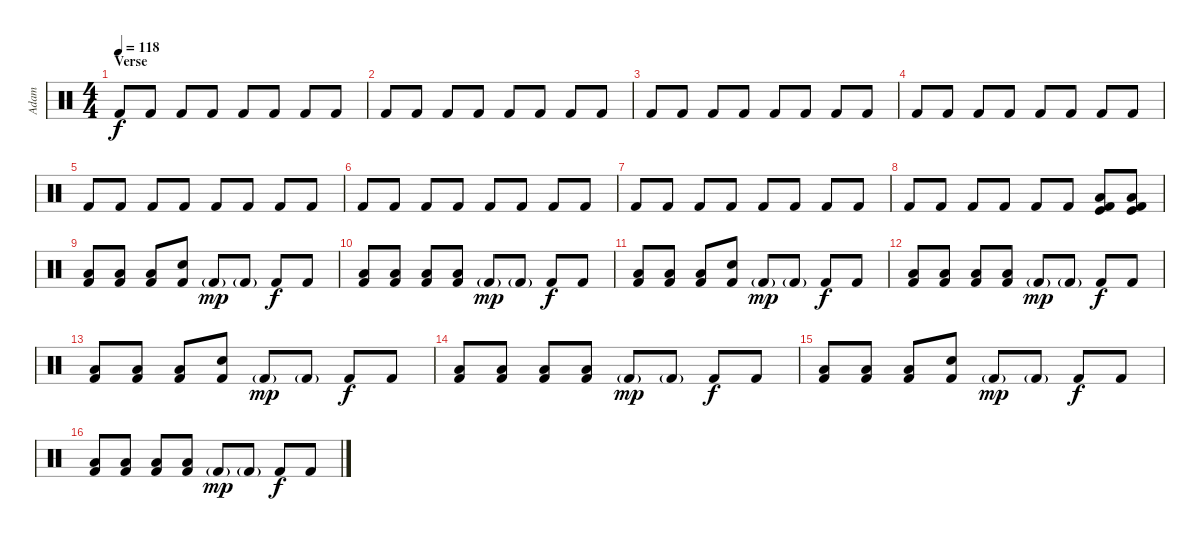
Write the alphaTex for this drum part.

\track ("Adam" "Adam") {instrument percussion}
\staff {score}
\articulation defaults
\ts (4 4)
\section ("" "Verse")
\tempo 118
\clef neutral
\ks c "Kick (hit) 2".8{dy f} "Kick (hit) 2".8 "Kick (hit) 2".8 "Kick (hit) 2".8 "Kick (hit) 2".8 "Kick (hit) 2".8 "Kick (hit) 2".8 "Kick (hit) 2".8
|
"Kick (hit) 2".8 "Kick (hit) 2".8 "Kick (hit) 2".8 "Kick (hit) 2".8 "Kick (hit) 2".8 "Kick (hit) 2".8 "Kick (hit) 2".8 "Kick (hit) 2".8 |
"Kick (hit) 2".8 "Kick (hit) 2".8 "Kick (hit) 2".8 "Kick (hit) 2".8 "Kick (hit) 2".8 "Kick (hit) 2".8 "Kick (hit) 2".8 "Kick (hit) 2".8 |
"Kick (hit) 2".8 "Kick (hit) 2".8 "Kick (hit) 2".8 "Kick (hit) 2".8 "Kick (hit) 2".8 "Kick (hit) 2".8 "Kick (hit) 2".8 "Kick (hit) 2".8 |
"Kick (hit) 2".8 "Kick (hit) 2".8 "Kick (hit) 2".8 "Kick (hit) 2".8 "Kick (hit) 2".8 "Kick (hit) 2".8 "Kick (hit) 2".8 "Kick (hit) 2".8 |
"Kick (hit) 2".8 "Kick (hit) 2".8 "Kick (hit) 2".8 "Kick (hit) 2".8 "Kick (hit) 2".8 "Kick (hit) 2".8 "Kick (hit) 2".8 "Kick (hit) 2".8 |
"Kick (hit) 2".8 "Kick (hit) 2".8 "Kick (hit) 2".8 "Kick (hit) 2".8 "Kick (hit) 2".8 "Kick (hit) 2".8 "Kick (hit) 2".8 "Kick (hit) 2".8 |
"Kick (hit) 2".8 "Kick (hit) 2".8 "Kick (hit) 2".8 "Kick (hit) 2".8 "Kick (hit) 2".8 "Kick (hit) 2".8 ("Kick (hit) 2" "Low Floor Tom (hit)" "Kick (hit)").8 ("Kick (hit) 2" "Low Floor Tom (hit)" "Kick (hit)").8 |
("Kick (hit) 2" "Low Floor Tom (hit)").8 ("Kick (hit) 2" "Low Floor Tom (hit)").8 ("Kick (hit) 2" "Low Floor Tom (hit)").8 ("Kick (hit) 2" "Electric Snare (hit)").8 "Kick (hit) 2"{g}.8{dy mp} "Kick (hit) 2"{g}.8 "Kick (hit) 2".8{dy f} "Kick (hit) 2".8 |
("Kick (hit) 2" "Low Floor Tom (hit)").8 ("Kick (hit) 2" "Low Floor Tom (hit)").8 ("Kick (hit) 2" "Low Floor Tom (hit)").8 ("Kick (hit) 2" "Low Floor Tom (hit)").8 "Kick (hit) 2"{g}.8{dy mp} "Kick (hit) 2"{g}.8 "Kick (hit) 2".8{dy f} "Kick (hit) 2".8 |
("Kick (hit) 2" "Low Floor Tom (hit)").8 ("Kick (hit) 2" "Low Floor Tom (hit)").8 ("Kick (hit) 2" "Low Floor Tom (hit)").8 ("Kick (hit) 2" "Electric Snare (hit)").8 "Kick (hit) 2"{g}.8{dy mp} "Kick (hit) 2"{g}.8 "Kick (hit) 2".8{dy f} "Kick (hit) 2".8 |
("Kick (hit) 2" "Low Floor Tom (hit)").8 ("Kick (hit) 2" "Low Floor Tom (hit)").8 ("Kick (hit) 2" "Low Floor Tom (hit)").8 ("Kick (hit) 2" "Low Floor Tom (hit)").8 "Kick (hit) 2"{g}.8{dy mp} "Kick (hit) 2"{g}.8 "Kick (hit) 2".8{dy f} "Kick (hit) 2".8 |
("Kick (hit) 2" "Low Floor Tom (hit)").8 ("Kick (hit) 2" "Low Floor Tom (hit)").8 ("Kick (hit) 2" "Low Floor Tom (hit)").8 ("Kick (hit) 2" "Electric Snare (hit)").8 "Kick (hit) 2"{g}.8{dy mp} "Kick (hit) 2"{g}.8 "Kick (hit) 2".8{dy f} "Kick (hit) 2".8 |
("Kick (hit) 2" "Low Floor Tom (hit)").8 ("Kick (hit) 2" "Low Floor Tom (hit)").8 ("Kick (hit) 2" "Low Floor Tom (hit)").8 ("Kick (hit) 2" "Low Floor Tom (hit)").8 "Kick (hit) 2"{g}.8{dy mp} "Kick (hit) 2"{g}.8 "Kick (hit) 2".8{dy f} "Kick (hit) 2".8 |
("Kick (hit) 2" "Low Floor Tom (hit)").8 ("Kick (hit) 2" "Low Floor Tom (hit)").8 ("Kick (hit) 2" "Low Floor Tom (hit)").8 ("Kick (hit) 2" "Electric Snare (hit)").8 "Kick (hit) 2"{g}.8{dy mp} "Kick (hit) 2"{g}.8 "Kick (hit) 2".8{dy f} "Kick (hit) 2".8 |
("Kick (hit) 2" "Low Floor Tom (hit)").8 ("Kick (hit) 2" "Low Floor Tom (hit)").8 ("Kick (hit) 2" "Low Floor Tom (hit)").8 ("Kick (hit) 2" "Low Floor Tom (hit)").8 "Kick (hit) 2"{g}.8{dy mp} "Kick (hit) 2"{g}.8 "Kick (hit) 2".8{dy f} "Kick (hit) 2".8
